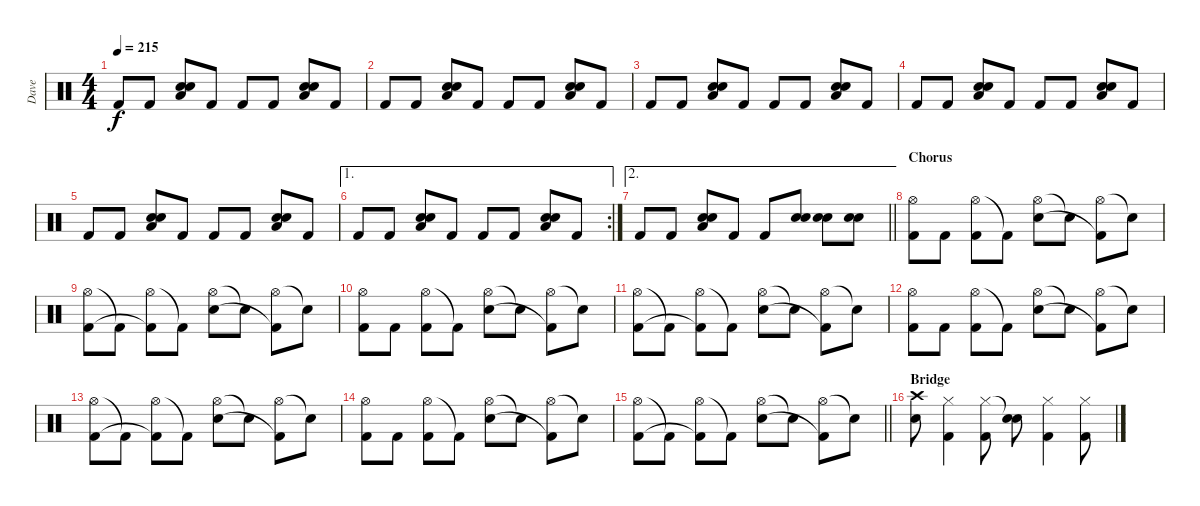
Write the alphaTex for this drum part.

\track ("Dave" "Dave") {instrument percussion}
\staff {score}
\articulation defaults
\ts (4 4)
\tempo 215
\clef neutral
\ks c "Kick (hit) 2".8{dy f} "Kick (hit) 2".8
("Low Floor Tom (hit)" "Electric Snare (hit)" "Electric Snare (hit)").8 "Kick (hit) 2".8 "Kick (hit) 2".8 "Kick (hit) 2".8 ("Low Floor Tom (hit)" "Electric Snare (hit)" "Electric Snare (hit)").8 "Kick (hit) 2".8 |
"Kick (hit) 2".8 "Kick (hit) 2".8 ("Low Floor Tom (hit)" "Electric Snare (hit)" "Electric Snare (hit)").8 "Kick (hit) 2".8 "Kick (hit) 2".8 "Kick (hit) 2".8 ("Low Floor Tom (hit)" "Electric Snare (hit)" "Electric Snare (hit)").8 "Kick (hit) 2".8 |
"Kick (hit) 2".8 "Kick (hit) 2".8 ("Low Floor Tom (hit)" "Electric Snare (hit)" "Electric Snare (hit)").8 "Kick (hit) 2".8 "Kick (hit) 2".8 "Kick (hit) 2".8 ("Low Floor Tom (hit)" "Electric Snare (hit)" "Electric Snare (hit)").8 "Kick (hit) 2".8 |
"Kick (hit) 2".8 "Kick (hit) 2".8 ("Low Floor Tom (hit)" "Electric Snare (hit)" "Electric Snare (hit)").8 "Kick (hit) 2".8 "Kick (hit) 2".8 "Kick (hit) 2".8 ("Low Floor Tom (hit)" "Electric Snare (hit)" "Electric Snare (hit)").8 "Kick (hit) 2".8 |
"Kick (hit) 2".8 "Kick (hit) 2".8 ("Low Floor Tom (hit)" "Electric Snare (hit)" "Electric Snare (hit)").8 "Kick (hit) 2".8 "Kick (hit) 2".8 "Kick (hit) 2".8 ("Low Floor Tom (hit)" "Electric Snare (hit)" "Electric Snare (hit)").8 "Kick (hit) 2".8 |
\ae 1
\rc 2 "Kick (hit) 2".8 "Kick (hit) 2".8
("Low Floor Tom (hit)" "Electric Snare (hit)" "Electric Snare (hit)").8 "Kick (hit) 2".8 "Kick (hit) 2".8 "Kick (hit) 2".8 ("Low Floor Tom (hit)" "Electric Snare (hit)" "Electric Snare (hit)").8 "Kick (hit) 2".8 |
\ae 2
\barLineRight lightlight "Kick (hit) 2".8 "Kick (hit) 2".8
("Low Floor Tom (hit)" "Electric Snare (hit)" "Electric Snare (hit)").8 "Kick (hit) 2".8 "Kick (hit) 2".8 ("Electric Snare (hit)" "Electric Snare (hit)").8 ("Electric Snare (hit)" "Electric Snare (hit)").8 ("Electric Snare (hit)" "Electric Snare (hit)").8 |
\section ("" "Chorus")
("Hi-Hat (open)" "Kick (hit) 2").8 "Kick (hit) 2".8 ("Hi-Hat (open)" "Kick (hit) 2").8 "Kick (hit) 2"{t}.8 ("Hi-Hat (open)" "Electric Snare (hit)").8 "Snare (hit)"{t}.8 ("Hi-Hat (open)" "Kick (hit) 2"{t}).8 "Snare (hit)"{t}.8 |
("Hi-Hat (open)" "Kick (hit) 2").8 "Kick (hit) 2"{t}.8 ("Hi-Hat (open)" "Kick (hit) 2"{t}).8 "Kick (hit) 2"{t}.8 ("Hi-Hat (open)" "Electric Snare (hit)").8 "Snare (hit)"{t}.8 ("Hi-Hat (open)" "Kick (hit) 2"{t}).8 "Snare (hit)"{t}.8 |
("Hi-Hat (open)" "Kick (hit) 2").8 "Kick (hit) 2".8 ("Hi-Hat (open)" "Kick (hit) 2").8 "Kick (hit) 2"{t}.8 ("Hi-Hat (open)" "Electric Snare (hit)").8 "Snare (hit)"{t}.8 ("Hi-Hat (open)" "Kick (hit) 2"{t}).8 "Snare (hit)"{t}.8 |
("Hi-Hat (open)" "Kick (hit) 2").8 "Kick (hit) 2"{t}.8 ("Hi-Hat (open)" "Kick (hit) 2"{t}).8 "Kick (hit) 2"{t}.8 ("Hi-Hat (open)" "Electric Snare (hit)").8 "Snare (hit)"{t}.8 ("Hi-Hat (open)" "Kick (hit) 2"{t}).8 "Snare (hit)"{t}.8 |
("Hi-Hat (open)" "Kick (hit) 2").8 "Kick (hit) 2".8 ("Hi-Hat (open)" "Kick (hit) 2").8 "Kick (hit) 2"{t}.8 ("Hi-Hat (open)" "Electric Snare (hit)").8 "Snare (hit)"{t}.8 ("Hi-Hat (open)" "Kick (hit) 2"{t}).8 "Snare (hit)"{t}.8 |
("Hi-Hat (open)" "Kick (hit) 2").8 "Kick (hit) 2"{t}.8 ("Hi-Hat (open)" "Kick (hit) 2"{t}).8 "Kick (hit) 2"{t}.8 ("Hi-Hat (open)" "Electric Snare (hit)").8 "Snare (hit)"{t}.8 ("Hi-Hat (open)" "Kick (hit) 2"{t}).8 "Snare (hit)"{t}.8 |
("Hi-Hat (open)" "Kick (hit) 2").8 "Kick (hit) 2".8 ("Hi-Hat (open)" "Kick (hit) 2").8 "Kick (hit) 2"{t}.8 ("Hi-Hat (open)" "Electric Snare (hit)").8 "Snare (hit)"{t}.8 ("Hi-Hat (open)" "Kick (hit) 2"{t}).8 "Snare (hit)"{t}.8 |
\barLineRight lightlight
("Hi-Hat (open)" "Kick (hit) 2").8 "Kick (hit) 2"{t}.8 ("Hi-Hat (open)" "Kick (hit) 2"{t}).8 "Kick (hit) 2"{t}.8 ("Hi-Hat (open)" "Electric Snare (hit)").8 "Snare (hit)"{t}.8 ("Hi-Hat (open)" "Kick (hit) 2"{t}).8 "Snare (hit)"{t}.8 |
\section ("" "Bridge")
("Crash high (hit)" "Electric Snare (hit)").8 ("Hi-Hat (closed)" "Kick (hit) 2").4 ("Hi-Hat (closed)" "Kick (hit) 2").8 ("Snare (hit)"{t} "Electric Snare (hit)").8 ("Hi-Hat (closed)" "Kick (hit) 2").4 ("Hi-Hat (closed)" "Kick (hit) 2").8
